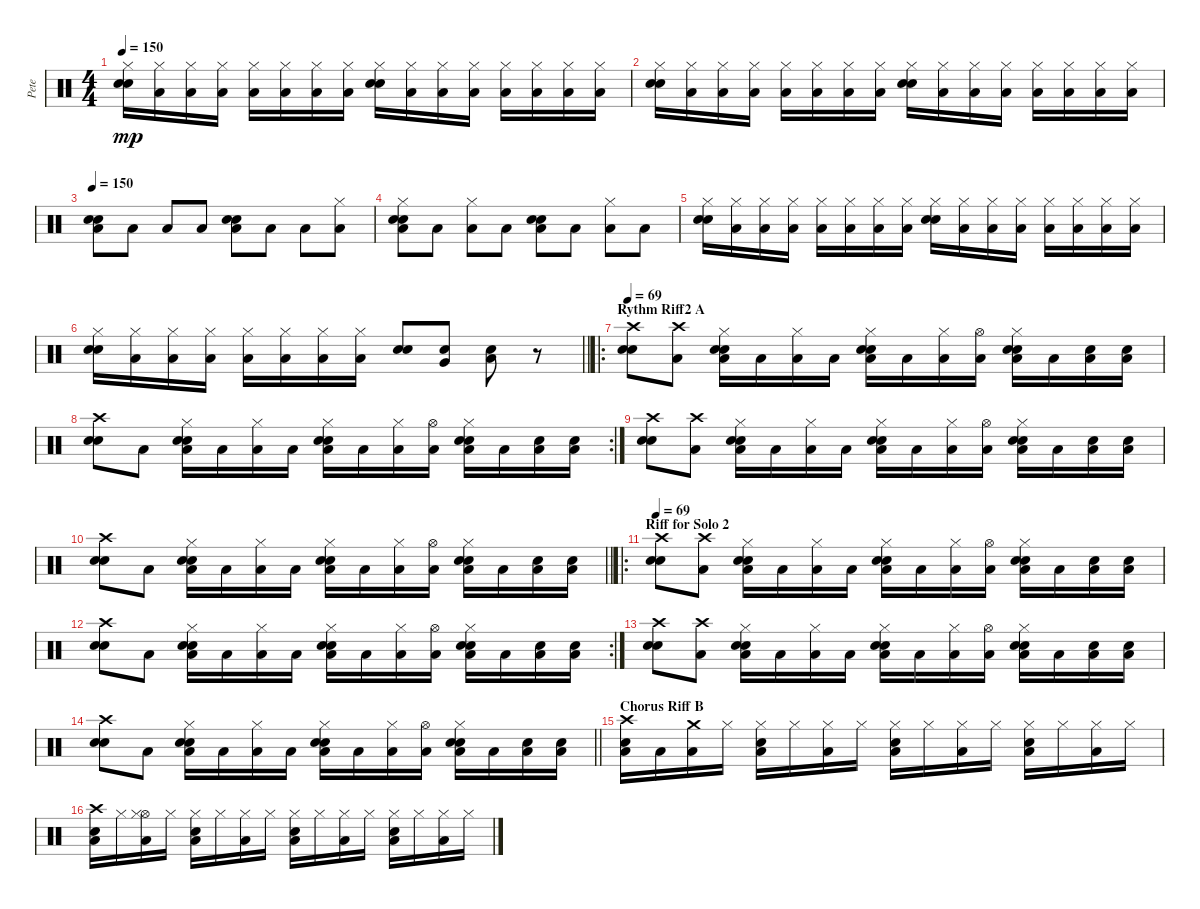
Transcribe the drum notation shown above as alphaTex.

\track ("Pete" "Pete") {instrument percussion}
\staff {score}
\articulation defaults
\ts (4 4)
\tempo 150
\clef neutral
\ks c
("Electric Snare (hit)" "Hi-Hat (closed)" "Electric Snare (hit)").16{dy mp} ("Hi-Hat (closed)" "Low Floor Tom (hit)").16 ("Hi-Hat (closed)" "Low Floor Tom (hit)").16 ("Hi-Hat (closed)" "Low Floor Tom (hit)").16 ("Hi-Hat (closed)" "Low Floor Tom (hit)").16 ("Hi-Hat (closed)" "Low Floor Tom (hit)").16 ("Hi-Hat (closed)" "Low Floor Tom (hit)").16 ("Hi-Hat (closed)" "Low Floor Tom (hit)").16 ("Electric Snare (hit)" "Hi-Hat (closed)" "Electric Snare (hit)").16 ("Hi-Hat (closed)" "Low Floor Tom (hit)").16 ("Hi-Hat (closed)" "Low Floor Tom (hit)").16 ("Hi-Hat (closed)" "Low Floor Tom (hit)").16 ("Hi-Hat (closed)" "Low Floor Tom (hit)").16 ("Hi-Hat (closed)" "Low Floor Tom (hit)").16 ("Hi-Hat (closed)" "Low Floor Tom (hit)").16 ("Hi-Hat (closed)" "Low Floor Tom (hit)").16 |
("Electric Snare (hit)" "Hi-Hat (closed)" "Electric Snare (hit)").16 ("Hi-Hat (closed)" "Low Floor Tom (hit)").16 ("Hi-Hat (closed)" "Low Floor Tom (hit)").16 ("Hi-Hat (closed)" "Low Floor Tom (hit)").16 ("Hi-Hat (closed)" "Low Floor Tom (hit)").16 ("Hi-Hat (closed)" "Low Floor Tom (hit)").16 ("Hi-Hat (closed)" "Low Floor Tom (hit)").16 ("Hi-Hat (closed)" "Low Floor Tom (hit)").16 ("Electric Snare (hit)" "Hi-Hat (closed)" "Electric Snare (hit)").16 ("Hi-Hat (closed)" "Low Floor Tom (hit)").16 ("Hi-Hat (closed)" "Low Floor Tom (hit)").16 ("Hi-Hat (closed)" "Low Floor Tom (hit)").16 ("Hi-Hat (closed)" "Low Floor Tom (hit)").16 ("Hi-Hat (closed)" "Low Floor Tom (hit)").16 ("Hi-Hat (closed)" "Low Floor Tom (hit)").16 ("Hi-Hat (closed)" "Low Floor Tom (hit)").16 |
\tempo 150
("Electric Snare (hit)" "Low Floor Tom (hit)" "Electric Snare (hit)").8 "Low Floor Tom (hit)".8 "Low Floor Tom (hit)".8 "Low Floor Tom (hit)".8 ("Electric Snare (hit)" "Low Floor Tom (hit)" "Electric Snare (hit)").8 "Low Floor Tom (hit)".8 "Low Floor Tom (hit)".8 ("Hi-Hat (closed)" "Low Floor Tom (hit)").8 |
("Electric Snare (hit)" "Hi-Hat (closed)" "Low Floor Tom (hit)" "Electric Snare (hit)").8 "Low Floor Tom (hit)".8 ("Hi-Hat (closed)" "Low Floor Tom (hit)").8 "Low Floor Tom (hit)".8 ("Electric Snare (hit)" "Low Floor Tom (hit)" "Electric Snare (hit)").8 "Low Floor Tom (hit)".8 ("Hi-Hat (closed)" "Low Floor Tom (hit)").8 "Low Floor Tom (hit)".8 |
("Electric Snare (hit)" "Hi-Hat (closed)" "Electric Snare (hit)").16 ("Hi-Hat (closed)" "Low Floor Tom (hit)").16 ("Hi-Hat (closed)" "Low Floor Tom (hit)").16 ("Hi-Hat (closed)" "Low Floor Tom (hit)").16 ("Hi-Hat (closed)" "Low Floor Tom (hit)").16 ("Hi-Hat (closed)" "Low Floor Tom (hit)").16 ("Hi-Hat (closed)" "Low Floor Tom (hit)").16 ("Hi-Hat (closed)" "Low Floor Tom (hit)").16 ("Electric Snare (hit)" "Hi-Hat (closed)" "Electric Snare (hit)").16 ("Hi-Hat (closed)" "Low Floor Tom (hit)").16 ("Hi-Hat (closed)" "Low Floor Tom (hit)").16 ("Hi-Hat (closed)" "Low Floor Tom (hit)").16 ("Hi-Hat (closed)" "Low Floor Tom (hit)").16 ("Hi-Hat (closed)" "Low Floor Tom (hit)").16 ("Hi-Hat (closed)" "Low Floor Tom (hit)").16 ("Hi-Hat (closed)" "Low Floor Tom (hit)").16 |
\barLineRight lightlight
("Electric Snare (hit)" "Hi-Hat (closed)" "Electric Snare (hit)").16 ("Hi-Hat (closed)" "Low Floor Tom (hit)").16 ("Hi-Hat (closed)" "Low Floor Tom (hit)").16 ("Hi-Hat (closed)" "Low Floor Tom (hit)").16 ("Hi-Hat (closed)" "Low Floor Tom (hit)").16 ("Hi-Hat (closed)" "Low Floor Tom (hit)").16 ("Hi-Hat (closed)" "Low Floor Tom (hit)").16 ("Hi-Hat (closed)" "Low Floor Tom (hit)").16 ("Electric Snare (hit)" "Electric Snare (hit)").8 ("Very Low Tom (hit)" "Electric Snare (hit)").8 ("Low Floor Tom (hit)" "Electric Snare (hit)").8 r.8 |
\ro
\section ("" "Rythm Riff2 A")
\tempo 69
("Electric Snare (hit)" "Crash high (hit)" "Electric Snare (hit)").8 ("Crash high (hit)" "Low Floor Tom (hit)").8 ("Electric Snare (hit)" "Hi-Hat (closed)" "Low Floor Tom (hit)" "Electric Snare (hit)").16 "Low Floor Tom (hit)".16 ("Hi-Hat (closed)" "Low Floor Tom (hit)").16 "Low Floor Tom (hit)".16 ("Electric Snare (hit)" "Hi-Hat (closed)" "Low Floor Tom (hit)" "Electric Snare (hit)").16 "Low Floor Tom (hit)".16 ("Hi-Hat (closed)" "Low Floor Tom (hit)").16 ("Hi-Hat (open)" "Low Floor Tom (hit)").16 ("Electric Snare (hit)" "Hi-Hat (closed)" "Low Floor Tom (hit)" "Electric Snare (hit)").16 "Low Floor Tom (hit)".16 ("Electric Snare (hit)" "Low Floor Tom (hit)").16 ("Electric Snare (hit)" "Low Floor Tom (hit)").16 |
\rc 2
("Electric Snare (hit)" "Crash high (hit)" "Electric Snare (hit)").8 "Low Floor Tom (hit)".8 ("Electric Snare (hit)" "Hi-Hat (closed)" "Low Floor Tom (hit)" "Electric Snare (hit)").16 "Low Floor Tom (hit)".16 ("Hi-Hat (closed)" "Low Floor Tom (hit)").16 "Low Floor Tom (hit)".16 ("Electric Snare (hit)" "Hi-Hat (closed)" "Low Floor Tom (hit)" "Electric Snare (hit)").16 "Low Floor Tom (hit)".16 ("Hi-Hat (closed)" "Low Floor Tom (hit)").16 ("Hi-Hat (open)" "Low Floor Tom (hit)").16 ("Electric Snare (hit)" "Hi-Hat (closed)" "Low Floor Tom (hit)" "Electric Snare (hit)").16 "Low Floor Tom (hit)".16 ("Electric Snare (hit)" "Low Floor Tom (hit)").16 ("Electric Snare (hit)" "Low Floor Tom (hit)").16 |
("Electric Snare (hit)" "Crash high (hit)" "Electric Snare (hit)").8 ("Crash high (hit)" "Low Floor Tom (hit)").8 ("Electric Snare (hit)" "Hi-Hat (closed)" "Low Floor Tom (hit)" "Electric Snare (hit)").16 "Low Floor Tom (hit)".16 ("Hi-Hat (closed)" "Low Floor Tom (hit)").16 "Low Floor Tom (hit)".16 ("Electric Snare (hit)" "Hi-Hat (closed)" "Low Floor Tom (hit)" "Electric Snare (hit)").16 "Low Floor Tom (hit)".16 ("Hi-Hat (closed)" "Low Floor Tom (hit)").16 ("Hi-Hat (open)" "Low Floor Tom (hit)").16 ("Electric Snare (hit)" "Hi-Hat (closed)" "Low Floor Tom (hit)" "Electric Snare (hit)").16 "Low Floor Tom (hit)".16 ("Electric Snare (hit)" "Low Floor Tom (hit)").16 ("Electric Snare (hit)" "Low Floor Tom (hit)").16 |
\barLineRight lightlight
("Electric Snare (hit)" "Crash high (hit)" "Electric Snare (hit)").8 "Low Floor Tom (hit)".8 ("Electric Snare (hit)" "Hi-Hat (closed)" "Low Floor Tom (hit)" "Electric Snare (hit)").16 "Low Floor Tom (hit)".16 ("Hi-Hat (closed)" "Low Floor Tom (hit)").16 "Low Floor Tom (hit)".16 ("Electric Snare (hit)" "Hi-Hat (closed)" "Low Floor Tom (hit)" "Electric Snare (hit)").16 "Low Floor Tom (hit)".16 ("Hi-Hat (closed)" "Low Floor Tom (hit)").16 ("Hi-Hat (open)" "Low Floor Tom (hit)").16 ("Electric Snare (hit)" "Hi-Hat (closed)" "Low Floor Tom (hit)" "Electric Snare (hit)").16 "Low Floor Tom (hit)".16 ("Electric Snare (hit)" "Low Floor Tom (hit)").16 ("Electric Snare (hit)" "Low Floor Tom (hit)").16 |
\ro
\section ("" "Riff for Solo 2")
\tempo 69
("Electric Snare (hit)" "Crash high (hit)" "Electric Snare (hit)").8 ("Crash high (hit)" "Low Floor Tom (hit)").8 ("Electric Snare (hit)" "Hi-Hat (closed)" "Low Floor Tom (hit)" "Electric Snare (hit)").16 "Low Floor Tom (hit)".16 ("Hi-Hat (closed)" "Low Floor Tom (hit)").16 "Low Floor Tom (hit)".16 ("Electric Snare (hit)" "Hi-Hat (closed)" "Low Floor Tom (hit)" "Electric Snare (hit)").16 "Low Floor Tom (hit)".16 ("Hi-Hat (closed)" "Low Floor Tom (hit)").16 ("Hi-Hat (open)" "Low Floor Tom (hit)").16 ("Electric Snare (hit)" "Hi-Hat (closed)" "Low Floor Tom (hit)" "Electric Snare (hit)").16 "Low Floor Tom (hit)".16 ("Electric Snare (hit)" "Low Floor Tom (hit)").16 ("Electric Snare (hit)" "Low Floor Tom (hit)").16 |
\rc 2
("Electric Snare (hit)" "Crash high (hit)" "Electric Snare (hit)").8 "Low Floor Tom (hit)".8 ("Electric Snare (hit)" "Hi-Hat (closed)" "Low Floor Tom (hit)" "Electric Snare (hit)").16 "Low Floor Tom (hit)".16 ("Hi-Hat (closed)" "Low Floor Tom (hit)").16 "Low Floor Tom (hit)".16 ("Electric Snare (hit)" "Hi-Hat (closed)" "Low Floor Tom (hit)" "Electric Snare (hit)").16 "Low Floor Tom (hit)".16 ("Hi-Hat (closed)" "Low Floor Tom (hit)").16 ("Hi-Hat (open)" "Low Floor Tom (hit)").16 ("Electric Snare (hit)" "Hi-Hat (closed)" "Low Floor Tom (hit)" "Electric Snare (hit)").16 "Low Floor Tom (hit)".16 ("Electric Snare (hit)" "Low Floor Tom (hit)").16 ("Electric Snare (hit)" "Low Floor Tom (hit)").16 |
("Electric Snare (hit)" "Crash high (hit)" "Electric Snare (hit)").8 ("Crash high (hit)" "Low Floor Tom (hit)").8 ("Electric Snare (hit)" "Hi-Hat (closed)" "Low Floor Tom (hit)" "Electric Snare (hit)").16 "Low Floor Tom (hit)".16 ("Hi-Hat (closed)" "Low Floor Tom (hit)").16 "Low Floor Tom (hit)".16 ("Electric Snare (hit)" "Hi-Hat (closed)" "Low Floor Tom (hit)" "Electric Snare (hit)").16 "Low Floor Tom (hit)".16 ("Hi-Hat (closed)" "Low Floor Tom (hit)").16 ("Hi-Hat (open)" "Low Floor Tom (hit)").16 ("Electric Snare (hit)" "Hi-Hat (closed)" "Low Floor Tom (hit)" "Electric Snare (hit)").16 "Low Floor Tom (hit)".16 ("Electric Snare (hit)" "Low Floor Tom (hit)").16 ("Electric Snare (hit)" "Low Floor Tom (hit)").16 |
\barLineRight lightlight
("Electric Snare (hit)" "Crash high (hit)" "Electric Snare (hit)").8 "Low Floor Tom (hit)".8 ("Electric Snare (hit)" "Hi-Hat (closed)" "Low Floor Tom (hit)" "Electric Snare (hit)").16 "Low Floor Tom (hit)".16 ("Hi-Hat (closed)" "Low Floor Tom (hit)").16 "Low Floor Tom (hit)".16 ("Electric Snare (hit)" "Hi-Hat (closed)" "Low Floor Tom (hit)" "Electric Snare (hit)").16 "Low Floor Tom (hit)".16 ("Hi-Hat (closed)" "Low Floor Tom (hit)").16 ("Hi-Hat (open)" "Low Floor Tom (hit)").16 ("Electric Snare (hit)" "Hi-Hat (closed)" "Low Floor Tom (hit)" "Electric Snare (hit)").16 "Low Floor Tom (hit)".16 ("Electric Snare (hit)" "Low Floor Tom (hit)").16 ("Electric Snare (hit)" "Low Floor Tom (hit)").16 |
\section ("" "Chorus Riff B")
("Electric Snare (hit)" "Crash high (hit)" "Low Floor Tom (hit)").16 "Low Floor Tom (hit)".16 ("Crash medium (hit)" "Low Floor Tom (hit)").16 "Hi-Hat (closed)".16 ("Electric Snare (hit)" "Hi-Hat (closed)" "Low Floor Tom (hit)").16 "Hi-Hat (closed)".16 ("Hi-Hat (closed)" "Low Floor Tom (hit)").16 "Hi-Hat (closed)".16 ("Electric Snare (hit)" "Hi-Hat (closed)" "Low Floor Tom (hit)").16 "Hi-Hat (closed)".16 ("Hi-Hat (closed)" "Low Floor Tom (hit)").16 "Hi-Hat (closed)".16 ("Electric Snare (hit)" "Hi-Hat (closed)" "Low Floor Tom (hit)").16 "Hi-Hat (closed)".16 ("Hi-Hat (closed)" "Low Floor Tom (hit)").16 "Hi-Hat (closed)".16 |
("Electric Snare (hit)" "Crash high (hit)" "Low Floor Tom (hit)").16 "Hi-Hat (closed)".16 ("Hi-Hat (open)" "Hi-Hat (closed)" "Low Floor Tom (hit)").16 "Hi-Hat (closed)".16 ("Electric Snare (hit)" "Hi-Hat (closed)" "Low Floor Tom (hit)").16 "Hi-Hat (closed)".16 ("Hi-Hat (closed)" "Low Floor Tom (hit)").16 "Hi-Hat (closed)".16 ("Electric Snare (hit)" "Hi-Hat (closed)" "Low Floor Tom (hit)").16 "Hi-Hat (closed)".16 ("Hi-Hat (closed)" "Low Floor Tom (hit)").16 "Hi-Hat (closed)".16 ("Electric Snare (hit)" "Hi-Hat (closed)" "Low Floor Tom (hit)").16 "Hi-Hat (closed)".16 ("Hi-Hat (closed)" "Low Floor Tom (hit)").16 "Hi-Hat (closed)".16
